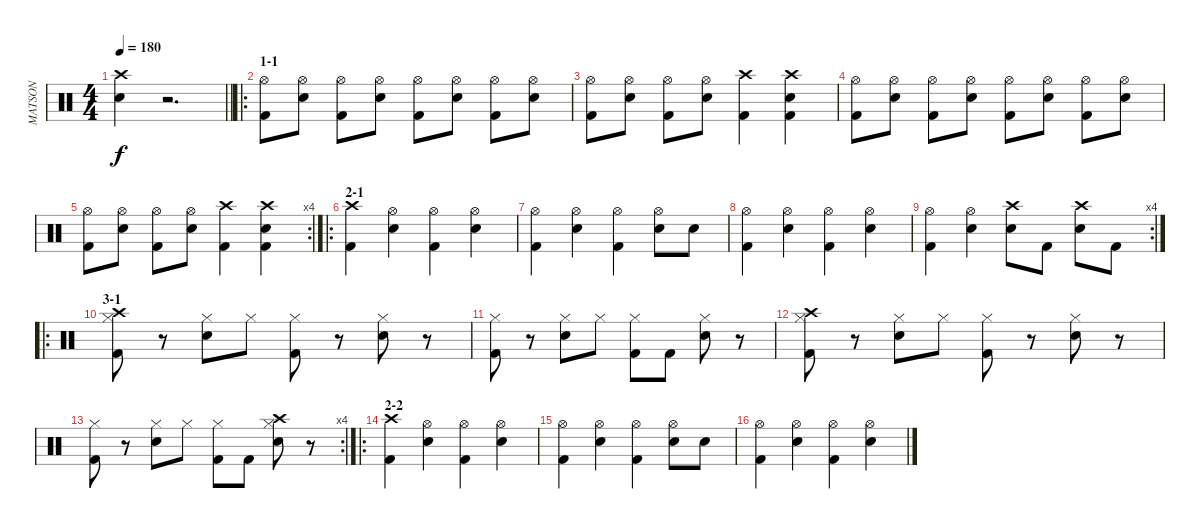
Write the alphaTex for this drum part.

\track ("MATSON" "MATSON") {instrument percussion}
\staff {score}
\articulation defaults
\ts (4 4)
\tempo 180
\clef neutral
\barLineRight lightlight
\ks c
("Crash high (hit)" "Snare (hit) 2").4{dy f} r.2{d} |
\ro
\section ("" "1-1")
("Hi-Hat (open)" "Kick (hit) 2").8 ("Hi-Hat (open)" "Snare (hit) 2").8 ("Hi-Hat (open)" "Kick (hit) 2").8 ("Hi-Hat (open)" "Snare (hit) 2").8 ("Hi-Hat (open)" "Kick (hit) 2").8 ("Hi-Hat (open)" "Snare (hit) 2").8 ("Hi-Hat (open)" "Kick (hit) 2").8 ("Hi-Hat (open)" "Snare (hit) 2").8 |
("Hi-Hat (open)" "Kick (hit) 2").8 ("Hi-Hat (open)" "Snare (hit) 2").8 ("Hi-Hat (open)" "Kick (hit) 2").8 ("Hi-Hat (open)" "Snare (hit) 2").8 ("Crash high (hit)" "Kick (hit) 2").4 ("Crash high (hit)" "Snare (hit) 2" "Kick (hit) 2").4 |
("Hi-Hat (open)" "Kick (hit) 2").8 ("Hi-Hat (open)" "Snare (hit) 2").8 ("Hi-Hat (open)" "Kick (hit) 2").8 ("Hi-Hat (open)" "Snare (hit) 2").8 ("Hi-Hat (open)" "Kick (hit) 2").8 ("Hi-Hat (open)" "Snare (hit) 2").8 ("Hi-Hat (open)" "Kick (hit) 2").8 ("Hi-Hat (open)" "Snare (hit) 2").8 |
\rc 4
("Hi-Hat (open)" "Kick (hit) 2").8 ("Hi-Hat (open)" "Snare (hit) 2").8 ("Hi-Hat (open)" "Kick (hit) 2").8 ("Hi-Hat (open)" "Snare (hit) 2").8 ("Crash high (hit)" "Kick (hit) 2").4 ("Crash high (hit)" "Snare (hit) 2" "Kick (hit) 2").4 |
\ro
\section ("" "2-1")
("Crash high (hit)" "Kick (hit) 2").4 ("Hi-Hat (open)" "Snare (hit) 2").4 ("Hi-Hat (open)" "Kick (hit) 2").4 ("Hi-Hat (open)" "Snare (hit) 2").4 |
("Hi-Hat (open)" "Kick (hit) 2").4 ("Hi-Hat (open)" "Snare (hit) 2").4 ("Hi-Hat (open)" "Kick (hit) 2").4 ("Hi-Hat (open)" "Snare (hit) 2").8 "Snare (hit) 2".8 |
("Hi-Hat (open)" "Kick (hit) 2").4 ("Hi-Hat (open)" "Snare (hit) 2").4 ("Hi-Hat (open)" "Kick (hit) 2").4 ("Hi-Hat (open)" "Snare (hit) 2").4 |
\rc 4
("Hi-Hat (open)" "Kick (hit) 2").4 ("Hi-Hat (open)" "Snare (hit) 2").4 ("Crash high (hit)" "Snare (hit) 2").8 "Kick (hit) 2".8 ("Crash high (hit)" "Snare (hit) 2").8 "Kick (hit) 2".8 |
\ro
\section ("" "3-1")
("Hi-Hat (closed)" "Crash high (hit)" "Kick (hit) 2").8 r.8 ("Hi-Hat (closed)" "Snare (hit) 2").8 "Hi-Hat (closed)".8 ("Hi-Hat (closed)" "Kick (hit) 2").8 r.8 ("Hi-Hat (closed)" "Snare (hit) 2").8 r.8 |
("Hi-Hat (closed)" "Kick (hit) 2").8 r.8 ("Hi-Hat (closed)" "Snare (hit) 2").8 "Hi-Hat (closed)".8 ("Hi-Hat (closed)" "Kick (hit) 2").8 "Kick (hit) 2".8 ("Hi-Hat (closed)" "Snare (hit) 2").8 r.8 |
("Hi-Hat (closed)" "Crash high (hit)" "Kick (hit) 2").8 r.8 ("Hi-Hat (closed)" "Snare (hit) 2").8 "Hi-Hat (closed)".8 ("Hi-Hat (closed)" "Kick (hit) 2").8 r.8 ("Hi-Hat (closed)" "Snare (hit) 2").8 r.8 |
\rc 4
("Hi-Hat (closed)" "Kick (hit) 2").8 r.8 ("Hi-Hat (closed)" "Snare (hit) 2").8 "Hi-Hat (closed)".8 ("Hi-Hat (closed)" "Kick (hit) 2").8 "Kick (hit) 2".8 ("Hi-Hat (closed)" "Crash high (hit)" "Snare (hit) 2").8 r.8 |
\ro
\section ("" "2-2")
("Crash high (hit)" "Kick (hit) 2").4 ("Hi-Hat (open)" "Snare (hit) 2").4 ("Hi-Hat (open)" "Kick (hit) 2").4 ("Hi-Hat (open)" "Snare (hit) 2").4 |
("Hi-Hat (open)" "Kick (hit) 2").4 ("Hi-Hat (open)" "Snare (hit) 2").4 ("Hi-Hat (open)" "Kick (hit) 2").4 ("Hi-Hat (open)" "Snare (hit) 2").8 "Snare (hit) 2".8 |
("Hi-Hat (open)" "Kick (hit) 2").4 ("Hi-Hat (open)" "Snare (hit) 2").4 ("Hi-Hat (open)" "Kick (hit) 2").4 ("Hi-Hat (open)" "Snare (hit) 2").4
